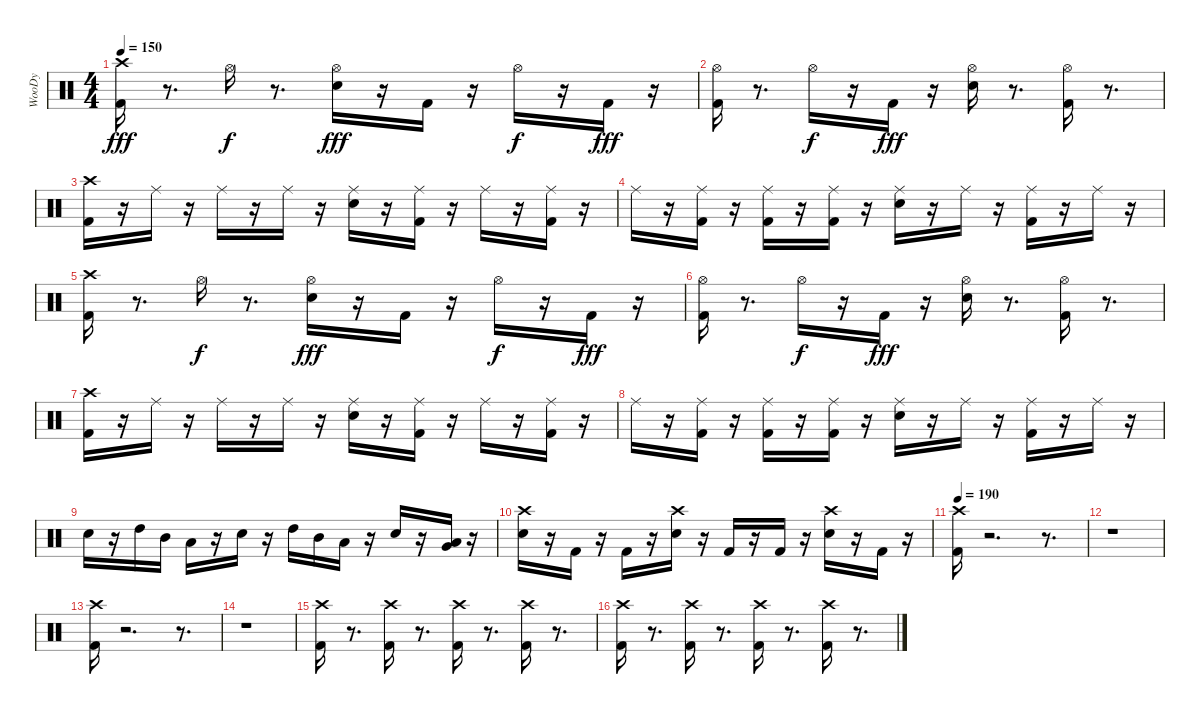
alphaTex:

\track ("WooDy" "WooDy") {instrument percussion}
\staff {score}
\articulation defaults
\ts (4 4)
\tempo 150
\clef neutral
\ks c
("Kick (hit) 2" "Crash high (hit)").16{dy fff} r.8{d} "Hi-Hat (open)".16{dy f} r.8{d} ("Snare (hit) 2" "Hi-Hat (open)").16{dy fff} r.16 "Kick (hit) 2".16 r.16 "Hi-Hat (open)".16{dy f} r.16 "Kick (hit) 2".16{dy fff} r.16 |
("Kick (hit) 2" "Hi-Hat (open)").16 r.8{d} "Hi-Hat (open)".16{dy f} r.16 "Kick (hit) 2".16{dy fff} r.16 ("Snare (hit) 2" "Hi-Hat (open)").16 r.8{d} ("Kick (hit) 2" "Hi-Hat (open)").16 r.8{d} |
("Kick (hit) 2" "Crash high (hit)").16 r.16 "Ride (middle)".16 r.16 "Ride (middle)".16 r.16 "Ride (middle)".16 r.16 ("Snare (hit) 2" "Ride (middle)").16 r.16 ("Kick (hit) 2" "Ride (middle)").16 r.16 "Ride (middle)".16 r.16 ("Kick (hit) 2" "Ride (middle)").16 r.16 |
"Ride (middle)".16 r.16 ("Kick (hit) 2" "Ride (middle)").16 r.16 ("Kick (hit) 2" "Ride (middle)").16 r.16 ("Kick (hit) 2" "Ride (middle)").16 r.16 ("Snare (hit) 2" "Ride (middle)").16 r.16 "Ride (middle)".16 r.16 ("Kick (hit) 2" "Ride (middle)").16 r.16 "Ride (middle)".16 r.16 |
("Kick (hit) 2" "Crash high (hit)").16 r.8{d} "Hi-Hat (open)".16{dy f} r.8{d} ("Snare (hit) 2" "Hi-Hat (open)").16{dy fff} r.16 "Kick (hit) 2".16 r.16 "Hi-Hat (open)".16{dy f} r.16 "Kick (hit) 2".16{dy fff} r.16 |
("Kick (hit) 2" "Hi-Hat (open)").16 r.8{d} "Hi-Hat (open)".16{dy f} r.16 "Kick (hit) 2".16{dy fff} r.16 ("Snare (hit) 2" "Hi-Hat (open)").16 r.8{d} ("Kick (hit) 2" "Hi-Hat (open)").16 r.8{d} |
("Kick (hit) 2" "Crash high (hit)").16 r.16 "Ride (middle)".16 r.16 "Ride (middle)".16 r.16 "Ride (middle)".16 r.16 ("Snare (hit) 2" "Ride (middle)").16 r.16 ("Kick (hit) 2" "Ride (middle)").16 r.16 "Ride (middle)".16 r.16 ("Kick (hit) 2" "Ride (middle)").16 r.16 |
"Ride (middle)".16 r.16 ("Kick (hit) 2" "Ride (middle)").16 r.16 ("Kick (hit) 2" "Ride (middle)").16 r.16 ("Kick (hit) 2" "Ride (middle)").16 r.16 ("Snare (hit) 2" "Ride (middle)").16 r.16 "Ride (middle)".16 r.16 ("Kick (hit) 2" "Ride (middle)").16 r.16 "Ride (middle)".16 r.16 |
"Snare (hit) 2".16 r.16 "High Tom (hit)".16 "Mid Tom (hit)".16 "Low Tom (hit)".16 r.16 "Snare (hit) 2".16 r.16 "High Tom (hit)".16 "Mid Tom (hit)".16 "Low Tom (hit)".16 r.16 "Snare (hit) 2".16 r.16 ("Very Low Tom (hit)" "Low Tom (hit)").16 r.16 |
("Snare (hit) 2" "Crash high (hit)").16 r.16 "Kick (hit) 2".16 r.16 "Kick (hit) 2".16 r.16 ("Snare (hit) 2" "Crash high (hit)").16 r.16 "Kick (hit) 2".16 r.16 "Kick (hit) 2".16 r.16 ("Snare (hit) 2" "Crash high (hit)").16 r.16 "Kick (hit) 2".16 r.16 |
\tempo 190
("Kick (hit) 2" "Crash high (hit)").16 r.2{d} r.8{d} |
r.1 |
("Kick (hit) 2" "Crash high (hit)").16 r.2{d} r.8{d} |
r.1 |
("Kick (hit) 2" "Crash high (hit)").16 r.8{d} ("Kick (hit) 2" "Crash high (hit)").16 r.8{d} ("Kick (hit) 2" "Crash high (hit)").16 r.8{d} ("Kick (hit) 2" "Crash high (hit)").16 r.8{d} |
("Kick (hit) 2" "Crash high (hit)").16 r.8{d} ("Kick (hit) 2" "Crash high (hit)").16 r.8{d} ("Kick (hit) 2" "Crash high (hit)").16 r.8{d} ("Kick (hit) 2" "Crash high (hit)").16 r.8{d}
